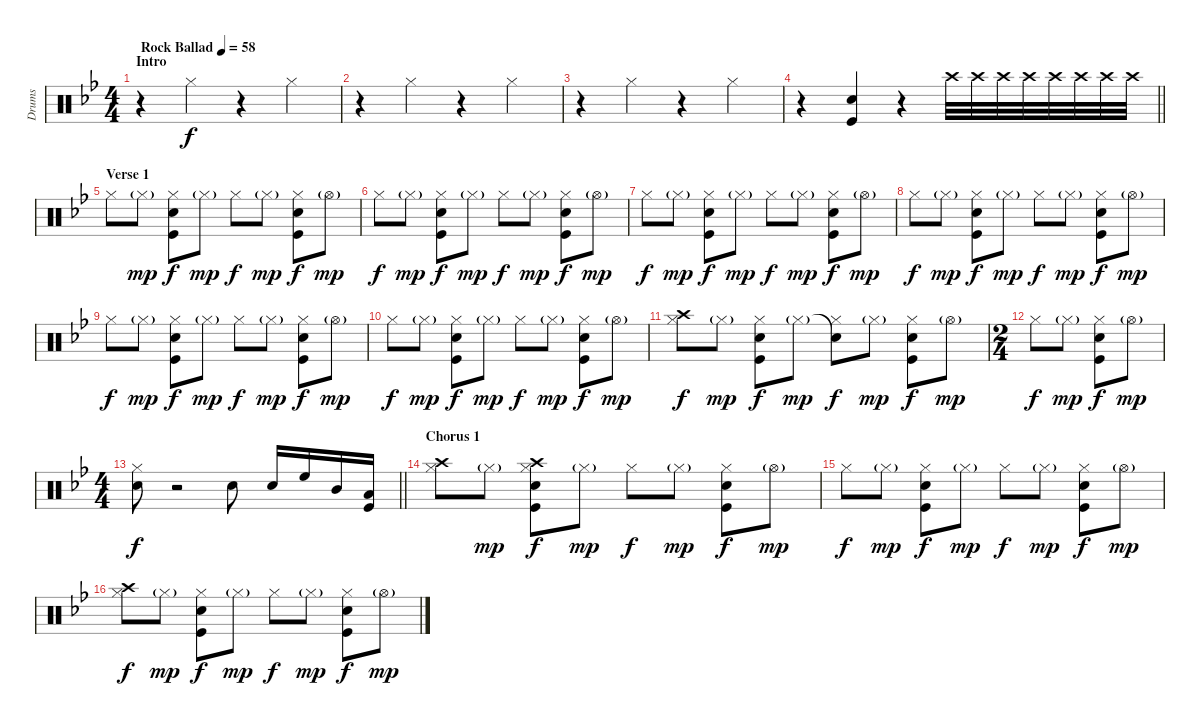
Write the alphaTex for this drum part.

\track ("Drums" "Drums") {instrument percussion}
\staff {score}
\articulation defaults
\ts (4 4)
\section ("" "Intro")
\tempo (58 "Rock Ballad")
\clef neutral
\ks bb
r.4{dy f} "Hi-Hat (closed)".4 r.4 "Hi-Hat (closed)".4 |
r.4 "Hi-Hat (closed)".4 r.4 "Hi-Hat (closed)".4 |
r.4 "Hi-Hat (closed)".4 r.4 "Hi-Hat (closed)".4 |
\barLineRight lightlight
r.4 ("Snare (hit) 2" "Kick (hit)").4 r.4{volume 0} "Crash high (hit)".32{volume 13} "Crash high (hit)".32 "Crash high (hit)".32 "Crash high (hit)".32 "Crash high (hit)".32 "Crash high (hit)".32 "Crash high (hit)".32 "Crash high (hit)".32 |
\section ("" "Verse 1")
"Hi-Hat (closed)".8 "Hi-Hat (closed)"{g}.8{dy mp} ("Hi-Hat (closed)" "Kick (hit)" "Snare (hit) 2").8{dy f} "Hi-Hat (closed)"{g}.8{dy mp} "Hi-Hat (closed)".8{dy f} "Hi-Hat (closed)"{g}.8{dy mp} ("Hi-Hat (closed)" "Kick (hit)" "Snare (hit) 2").8{dy f} "Hi-Hat (open)"{g}.8{dy mp} |
"Hi-Hat (closed)".8{dy f} "Hi-Hat (closed)"{g}.8{dy mp} ("Hi-Hat (closed)" "Kick (hit)" "Snare (hit) 2").8{dy f} "Hi-Hat (closed)"{g}.8{dy mp} "Hi-Hat (closed)".8{dy f} "Hi-Hat (closed)"{g}.8{dy mp} ("Hi-Hat (closed)" "Kick (hit)" "Snare (hit) 2").8{dy f} "Hi-Hat (open)"{g}.8{dy mp} |
"Hi-Hat (closed)".8{dy f} "Hi-Hat (closed)"{g}.8{dy mp} ("Hi-Hat (closed)" "Kick (hit)" "Snare (hit) 2").8{dy f} "Hi-Hat (closed)"{g}.8{dy mp} "Hi-Hat (closed)".8{dy f} "Hi-Hat (closed)"{g}.8{dy mp} ("Hi-Hat (closed)" "Kick (hit)" "Snare (hit) 2").8{dy f} "Hi-Hat (open)"{g}.8{dy mp} |
"Hi-Hat (closed)".8{dy f} "Hi-Hat (closed)"{g}.8{dy mp} ("Hi-Hat (closed)" "Kick (hit)" "Snare (hit) 2").8{dy f} "Hi-Hat (closed)"{g}.8{dy mp} "Hi-Hat (closed)".8{dy f} "Hi-Hat (closed)"{g}.8{dy mp} ("Hi-Hat (closed)" "Kick (hit)" "Snare (hit) 2").8{dy f} "Hi-Hat (open)"{g}.8{dy mp} |
"Hi-Hat (closed)".8{dy f} "Hi-Hat (closed)"{g}.8{dy mp} ("Hi-Hat (closed)" "Kick (hit)" "Snare (hit) 2").8{dy f} "Hi-Hat (closed)"{g}.8{dy mp} "Hi-Hat (closed)".8{dy f} "Hi-Hat (closed)"{g}.8{dy mp} ("Hi-Hat (closed)" "Kick (hit)" "Snare (hit) 2").8{dy f} "Hi-Hat (open)"{g}.8{dy mp} |
"Hi-Hat (closed)".8{dy f} "Hi-Hat (closed)"{g}.8{dy mp} ("Hi-Hat (closed)" "Kick (hit)" "Snare (hit) 2").8{dy f} "Hi-Hat (closed)"{g}.8{dy mp} "Hi-Hat (closed)".8{dy f} "Hi-Hat (closed)"{g}.8{dy mp} ("Hi-Hat (closed)" "Kick (hit)" "Snare (hit) 2").8{dy f} "Hi-Hat (open)"{g}.8{dy mp} |
("Crash high (hit)" "Hi-Hat (closed)").8{dy f} "Hi-Hat (closed)"{g}.8{dy mp} ("Hi-Hat (closed)" "Kick (hit)" "Snare (hit) 2").8{dy f} "Hi-Hat (closed)"{g}.8{dy mp} ("Snare (hit)"{t} "Hi-Hat (closed)").8{dy f} "Hi-Hat (closed)"{g}.8{dy mp} ("Hi-Hat (closed)" "Kick (hit)" "Snare (hit) 2").8{dy f} "Hi-Hat (open)"{g}.8{dy mp} |
\ts (2 4)
"Hi-Hat (closed)".8{dy f} "Hi-Hat (closed)"{g}.8{dy mp} ("Hi-Hat (closed)" "Kick (hit)" "Snare (hit) 2").8{dy f} "Hi-Hat (open)"{g}.8{dy mp} |
\ts (4 4)
\barLineRight lightlight
("Hi-Hat (closed)" "Snare (hit) 2").8{dy f} r.2 "Snare (hit) 2".8 "Snare (hit) 2".16 "High Floor Tom (hit)".16 "Mid Tom (hit)".16 ("Kick (hit)" "Low Tom (hit)").16 |
\section ("" "Chorus 1")
("Crash high (hit)" "Hi-Hat (closed)").8 "Hi-Hat (closed)"{g}.8{dy mp} ("Crash high (hit)" "Hi-Hat (closed)" "Kick (hit)" "Snare (hit) 2").8{dy f} "Hi-Hat (closed)"{g}.8{dy mp} "Hi-Hat (closed)".8{dy f} "Hi-Hat (closed)"{g}.8{dy mp} ("Hi-Hat (closed)" "Kick (hit)" "Snare (hit) 2").8{dy f} "Hi-Hat (open)"{g}.8{dy mp} |
"Hi-Hat (closed)".8{dy f} "Hi-Hat (closed)"{g}.8{dy mp} ("Hi-Hat (closed)" "Kick (hit)" "Snare (hit) 2").8{dy f} "Hi-Hat (closed)"{g}.8{dy mp} "Hi-Hat (closed)".8{dy f} "Hi-Hat (closed)"{g}.8{dy mp} ("Hi-Hat (closed)" "Kick (hit)" "Snare (hit) 2").8{dy f} "Hi-Hat (open)"{g}.8{dy mp} |
("Crash high (hit)" "Hi-Hat (closed)").8{dy f} "Hi-Hat (closed)"{g}.8{dy mp} ("Hi-Hat (closed)" "Kick (hit)" "Snare (hit) 2").8{dy f} "Hi-Hat (closed)"{g}.8{dy mp} "Hi-Hat (closed)".8{dy f} "Hi-Hat (closed)"{g}.8{dy mp} ("Hi-Hat (closed)" "Kick (hit)" "Snare (hit) 2").8{dy f} "Hi-Hat (open)"{g}.8{dy mp}
